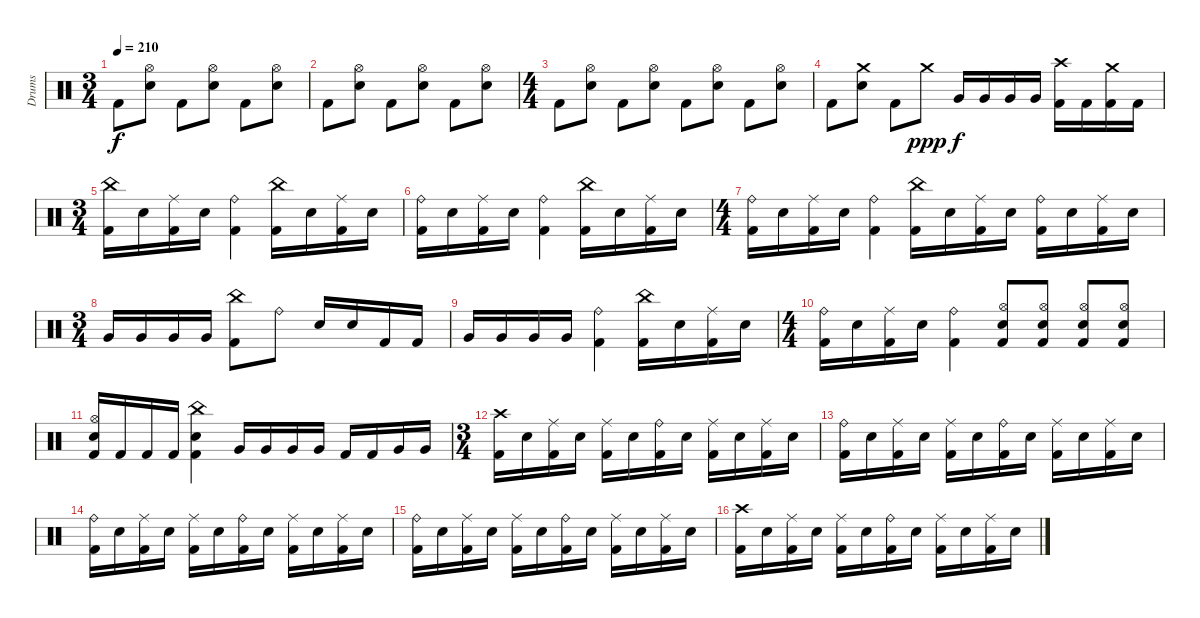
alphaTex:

\track ("Drums" "Drums") {instrument percussion}
\staff {score}
\articulation defaults
\ts (3 4)
\tempo 210
\clef neutral
\ks c "Kick (hit) 2".8{dy f}
("Hi-Hat (open)" "Electric Snare (hit)").8 "Kick (hit) 2".8 ("Hi-Hat (open)" "Electric Snare (hit)").8 "Kick (hit) 2".8 ("Hi-Hat (open)" "Electric Snare (hit)").8 |
"Kick (hit) 2".8 ("Hi-Hat (open)" "Electric Snare (hit)").8 "Kick (hit) 2".8 ("Hi-Hat (open)" "Electric Snare (hit)").8 "Kick (hit) 2".8 ("Hi-Hat (open)" "Electric Snare (hit)").8 |
\ts (4 4)
"Kick (hit) 2".8 ("Hi-Hat (open)" "Electric Snare (hit)").8 "Kick (hit) 2".8 ("Hi-Hat (open)" "Electric Snare (hit)").8 "Kick (hit) 2".8 ("Hi-Hat (open)" "Electric Snare (hit)").8 "Kick (hit) 2".8 ("Hi-Hat (open)" "Electric Snare (hit)").8 |
"Kick (hit) 2".8 ("Crash medium (hit)" "Electric Snare (hit)").8 "Kick (hit) 2".8 "Crash medium (hit)".8{dy ppp} "Very Low Tom (hit)".16{dy f} "Very Low Tom (hit)".16 "Very Low Tom (hit)".16 "Very Low Tom (hit)".16 ("Crash high (hit)" "Kick (hit) 2").16 "Kick (hit) 2".16 ("Crash medium (hit)" "Kick (hit) 2").16 "Kick (hit) 2".16 |
\ts (3 4)
("China (hit)" "Kick (hit) 2").16 "Electric Snare (hit)".16 ("Ride (middle)" "Kick (hit) 2").16 "Electric Snare (hit)".16 ("Ride (bell)" "Kick (hit) 2").4 ("China (hit)" "Kick (hit) 2").16 "Electric Snare (hit)".16 ("Ride (middle)" "Kick (hit) 2").16 "Electric Snare (hit)".16 |
("Ride (bell)" "Kick (hit) 2").16 "Electric Snare (hit)".16 ("Ride (middle)" "Kick (hit) 2").16 "Electric Snare (hit)".16 ("Ride (bell)" "Kick (hit) 2").4 ("China (hit)" "Kick (hit) 2").16 "Electric Snare (hit)".16 ("Ride (middle)" "Kick (hit) 2").16 "Electric Snare (hit)".16 |
\ts (4 4)
("Ride (bell)" "Kick (hit) 2").16 "Electric Snare (hit)".16 ("Ride (middle)" "Kick (hit) 2").16 "Electric Snare (hit)".16 ("Ride (bell)" "Kick (hit) 2").4 ("China (hit)" "Kick (hit) 2").16 "Electric Snare (hit)".16 ("Ride (middle)" "Kick (hit) 2").16 "Electric Snare (hit)".16 ("Ride (bell)" "Kick (hit) 2").16 "Electric Snare (hit)".16 ("Ride (middle)" "Kick (hit) 2").16 "Electric Snare (hit)".16 |
\ts (3 4)
"Very Low Tom (hit)".16 "Very Low Tom (hit)".16 "Very Low Tom (hit)".16 "Very Low Tom (hit)".16 ("China (hit)" "Kick (hit) 2").8 "Ride (bell)".8 "Electric Snare (hit)".16 "Electric Snare (hit)".16 "Kick (hit) 2".16 "Kick (hit) 2".16 |
"Very Low Tom (hit)".16 "Very Low Tom (hit)".16 "Very Low Tom (hit)".16 "Very Low Tom (hit)".16 ("Ride (bell)" "Kick (hit) 2").4 ("China (hit)" "Kick (hit) 2").16 "Electric Snare (hit)".16 ("Ride (middle)" "Kick (hit) 2").16 "Electric Snare (hit)".16 |
\ts (4 4)
("Ride (bell)" "Kick (hit) 2").16 "Electric Snare (hit)".16 ("Ride (middle)" "Kick (hit) 2").16 "Electric Snare (hit)".16 ("Ride (bell)" "Kick (hit) 2").4 ("Hi-Hat (open)" "Electric Snare (hit)" "Kick (hit) 2").8 ("Hi-Hat (open)" "Electric Snare (hit)" "Kick (hit) 2").8 ("Hi-Hat (open)" "Electric Snare (hit)" "Kick (hit) 2").8 ("Hi-Hat (open)" "Electric Snare (hit)" "Kick (hit) 2").8 |
("Hi-Hat (open)" "Electric Snare (hit)" "Kick (hit) 2").16 "Kick (hit) 2".16 "Kick (hit) 2".16 "Kick (hit) 2".16 ("China (hit)" "Electric Snare (hit)" "Kick (hit) 2").4 "Very Low Tom (hit)".16 "Very Low Tom (hit)".16 "Very Low Tom (hit)".16 "Very Low Tom (hit)".16 "Kick (hit) 2".16 "Kick (hit) 2".16 "Very Low Tom (hit)".16 "Very Low Tom (hit)".16 |
\ts (3 4)
("Crash high (hit)" "Kick (hit) 2").16 "Electric Snare (hit)".16 ("Ride (middle)" "Kick (hit) 2").16 "Electric Snare (hit)".16 ("Ride (middle)" "Kick (hit) 2").16 "Electric Snare (hit)".16 ("Ride (bell)" "Kick (hit) 2").16 "Electric Snare (hit)".16 ("Ride (middle)" "Kick (hit) 2").16 "Electric Snare (hit)".16 ("Ride (middle)" "Kick (hit) 2").16 "Electric Snare (hit)".16 |
("Ride (bell)" "Kick (hit) 2").16 "Electric Snare (hit)".16 ("Ride (middle)" "Kick (hit) 2").16 "Electric Snare (hit)".16 ("Ride (middle)" "Kick (hit) 2").16 "Electric Snare (hit)".16 ("Ride (bell)" "Kick (hit) 2").16 "Electric Snare (hit)".16 ("Ride (middle)" "Kick (hit) 2").16 "Electric Snare (hit)".16 ("Ride (middle)" "Kick (hit) 2").16 "Electric Snare (hit)".16 |
("Ride (bell)" "Kick (hit) 2").16 "Electric Snare (hit)".16 ("Ride (middle)" "Kick (hit) 2").16 "Electric Snare (hit)".16 ("Ride (middle)" "Kick (hit) 2").16 "Electric Snare (hit)".16 ("Ride (bell)" "Kick (hit) 2").16 "Electric Snare (hit)".16 ("Ride (middle)" "Kick (hit) 2").16 "Electric Snare (hit)".16 ("Ride (middle)" "Kick (hit) 2").16 "Electric Snare (hit)".16 |
("Ride (bell)" "Kick (hit) 2").16 "Electric Snare (hit)".16 ("Ride (middle)" "Kick (hit) 2").16 "Electric Snare (hit)".16 ("Ride (middle)" "Kick (hit) 2").16 "Electric Snare (hit)".16 ("Ride (bell)" "Kick (hit) 2").16 "Electric Snare (hit)".16 ("Ride (middle)" "Kick (hit) 2").16 "Electric Snare (hit)".16 ("Ride (middle)" "Kick (hit) 2").16 "Electric Snare (hit)".16 |
("Crash high (hit)" "Kick (hit) 2").16 "Electric Snare (hit)".16 ("Ride (middle)" "Kick (hit) 2").16 "Electric Snare (hit)".16 ("Ride (middle)" "Kick (hit) 2").16 "Electric Snare (hit)".16 ("Ride (bell)" "Kick (hit) 2").16 "Electric Snare (hit)".16 ("Ride (middle)" "Kick (hit) 2").16 "Electric Snare (hit)".16 ("Ride (middle)" "Kick (hit) 2").16 "Electric Snare (hit)".16
